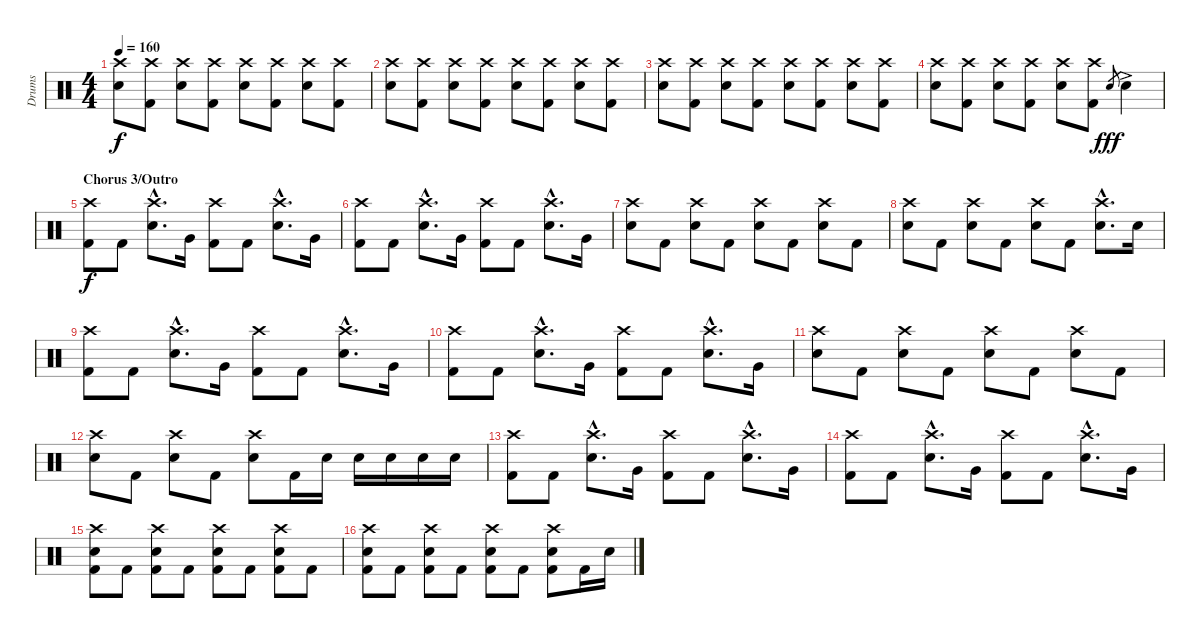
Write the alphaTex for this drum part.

\track ("Drums" "Drums") {instrument percussion}
\staff {score}
\articulation defaults
\ts (4 4)
\tempo 160
\clef neutral
\ks c
("Crash high (hit)" "Electric Snare (hit)").8{dy f} ("Crash high (hit)" "Kick (hit) 2").8 ("Crash high (hit)" "Electric Snare (hit)").8 ("Crash high (hit)" "Kick (hit) 2").8 ("Crash high (hit)" "Electric Snare (hit)").8 ("Crash high (hit)" "Kick (hit) 2").8 ("Crash high (hit)" "Electric Snare (hit)").8 ("Crash high (hit)" "Kick (hit) 2").8 |
("Crash high (hit)" "Electric Snare (hit)").8 ("Crash high (hit)" "Kick (hit) 2").8 ("Crash high (hit)" "Electric Snare (hit)").8 ("Crash high (hit)" "Kick (hit) 2").8 ("Crash high (hit)" "Electric Snare (hit)").8 ("Crash high (hit)" "Kick (hit) 2").8 ("Crash high (hit)" "Electric Snare (hit)").8 ("Crash high (hit)" "Kick (hit) 2").8 |
("Crash high (hit)" "Electric Snare (hit)").8 ("Crash high (hit)" "Kick (hit) 2").8 ("Crash high (hit)" "Electric Snare (hit)").8 ("Crash high (hit)" "Kick (hit) 2").8 ("Crash high (hit)" "Electric Snare (hit)").8 ("Crash high (hit)" "Kick (hit) 2").8 ("Crash high (hit)" "Electric Snare (hit)").8 ("Crash high (hit)" "Kick (hit) 2").8 |
("Crash high (hit)" "Electric Snare (hit)").8 ("Crash high (hit)" "Kick (hit) 2").8 ("Crash high (hit)" "Electric Snare (hit)").8 ("Crash high (hit)" "Kick (hit) 2").8 ("Crash high (hit)" "Electric Snare (hit)").8 ("Crash high (hit)" "Kick (hit) 2").8 "Electric Snare (hit)".8{gr dy fff} "Electric Snare (hit)"{ac}.4 |
\section ("" "Chorus 3/Outro")
("Crash high (hit)" "Kick (hit) 2").8{dy f} "Kick (hit) 2".8 ("Crash high (hit)"{hac} "Electric Snare (hit)"{hac}).8{d} "Very Low Tom (hit)".16 ("Crash high (hit)" "Kick (hit) 2").8 "Kick (hit) 2".8 ("Crash high (hit)"{hac} "Electric Snare (hit)"{hac}).8{d} "Very Low Tom (hit)".16 |
("Crash high (hit)" "Kick (hit) 2").8 "Kick (hit) 2".8 ("Crash high (hit)"{hac} "Electric Snare (hit)"{hac}).8{d} "Very Low Tom (hit)".16 ("Crash high (hit)" "Kick (hit) 2").8 "Kick (hit) 2".8 ("Crash high (hit)"{hac} "Electric Snare (hit)"{hac}).8{d} "Very Low Tom (hit)".16 |
("Crash high (hit)" "Electric Snare (hit)").8 "Kick (hit) 2".8 ("Crash high (hit)" "Electric Snare (hit)").8 "Kick (hit) 2".8 ("Crash high (hit)" "Electric Snare (hit)").8 "Kick (hit) 2".8 ("Crash high (hit)" "Electric Snare (hit)").8 "Kick (hit) 2".8 |
("Crash high (hit)" "Electric Snare (hit)").8 "Kick (hit) 2".8 ("Crash high (hit)" "Electric Snare (hit)").8 "Kick (hit) 2".8 ("Crash high (hit)" "Electric Snare (hit)").8 "Kick (hit) 2".8 ("Crash high (hit)"{hac} "Electric Snare (hit)"{hac}).8{d} "Electric Snare (hit)".16 |
("Crash high (hit)" "Kick (hit) 2").8 "Kick (hit) 2".8 ("Crash high (hit)"{hac} "Electric Snare (hit)"{hac}).8{d} "Very Low Tom (hit)".16 ("Crash high (hit)" "Kick (hit) 2").8 "Kick (hit) 2".8 ("Crash high (hit)"{hac} "Electric Snare (hit)"{hac}).8{d} "Very Low Tom (hit)".16 |
("Crash high (hit)" "Kick (hit) 2").8 "Kick (hit) 2".8 ("Crash high (hit)"{hac} "Electric Snare (hit)"{hac}).8{d} "Very Low Tom (hit)".16 ("Crash high (hit)" "Kick (hit) 2").8 "Kick (hit) 2".8 ("Crash high (hit)"{hac} "Electric Snare (hit)"{hac}).8{d} "Very Low Tom (hit)".16 |
("Crash high (hit)" "Electric Snare (hit)").8 "Kick (hit) 2".8 ("Crash high (hit)" "Electric Snare (hit)").8 "Kick (hit) 2".8 ("Crash high (hit)" "Electric Snare (hit)").8 "Kick (hit) 2".8 ("Crash high (hit)" "Electric Snare (hit)").8 "Kick (hit) 2".8 |
("Crash high (hit)" "Electric Snare (hit)").8 "Kick (hit) 2".8 ("Crash high (hit)" "Electric Snare (hit)").8 "Kick (hit) 2".8 ("Crash high (hit)" "Electric Snare (hit)").8 "Kick (hit) 2".16 "Electric Snare (hit)".16 "Electric Snare (hit)".16 "Electric Snare (hit)".16 "Electric Snare (hit)".16 "Electric Snare (hit)".16 |
("Crash high (hit)" "Kick (hit) 2").8 "Kick (hit) 2".8 ("Crash high (hit)"{hac} "Electric Snare (hit)"{hac}).8{d} "Very Low Tom (hit)".16 ("Crash high (hit)" "Kick (hit) 2").8 "Kick (hit) 2".8 ("Crash high (hit)"{hac} "Electric Snare (hit)"{hac}).8{d} "Very Low Tom (hit)".16 |
("Crash high (hit)" "Kick (hit) 2").8 "Kick (hit) 2".8 ("Crash high (hit)"{hac} "Electric Snare (hit)"{hac}).8{d} "Very Low Tom (hit)".16 ("Crash high (hit)" "Kick (hit) 2").8 "Kick (hit) 2".8 ("Crash high (hit)"{hac} "Electric Snare (hit)"{hac}).8{d} "Very Low Tom (hit)".16 |
("Crash high (hit)" "Electric Snare (hit)" "Kick (hit) 2").8 "Kick (hit) 2".8 ("Crash high (hit)" "Electric Snare (hit)" "Kick (hit) 2").8 "Kick (hit) 2".8 ("Crash high (hit)" "Electric Snare (hit)" "Kick (hit) 2").8 "Kick (hit) 2".8 ("Crash high (hit)" "Electric Snare (hit)" "Kick (hit) 2").8 "Kick (hit) 2".8 |
("Crash high (hit)" "Electric Snare (hit)" "Kick (hit) 2").8 "Kick (hit) 2".8 ("Crash high (hit)" "Electric Snare (hit)" "Kick (hit) 2").8 "Kick (hit) 2".8 ("Crash high (hit)" "Electric Snare (hit)" "Kick (hit) 2").8 "Kick (hit) 2".8 ("Crash high (hit)" "Electric Snare (hit)" "Kick (hit) 2").8 "Kick (hit) 2".16 "Electric Snare (hit)".16
